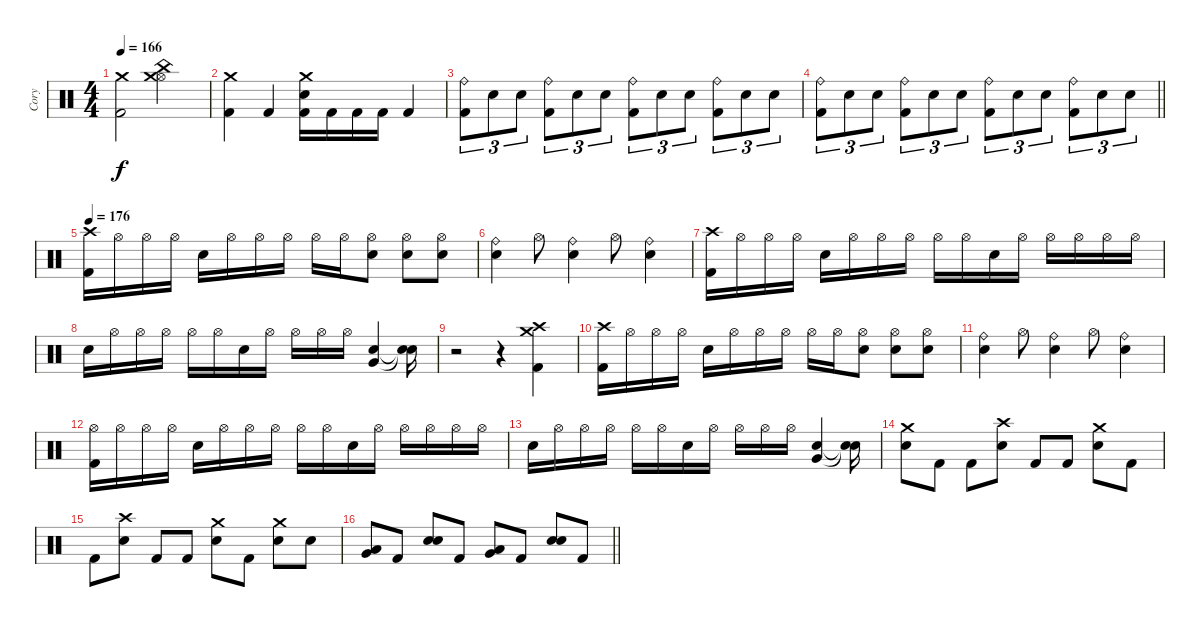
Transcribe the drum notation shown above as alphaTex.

\track ("Cory" "Cory") {instrument percussion}
\staff {score}
\articulation defaults
\ts (4 4)
\tempo 166
\clef neutral
\ks c
("Crash medium (hit)" "Kick (hit) 2").2{dy f} ("Hi-Hat (open)" "Crash medium (hit)" "China (hit)").2 |
("Crash medium (hit)" "Kick (hit) 2").4 "Kick (hit) 2".4 ("Crash medium (hit)" "Snare (hit) 2" "Kick (hit) 2").16 "Kick (hit) 2".16 "Kick (hit) 2".16 "Kick (hit) 2".16 "Kick (hit) 2".4 |
("Ride (bell)" "Kick (hit) 2").8{tu (3 2)} "Snare (hit) 2".8{tu (3 2)} "Snare (hit) 2".8{tu (3 2)} ("Ride (bell)" "Kick (hit) 2").8{tu (3 2)} "Snare (hit) 2".8{tu (3 2)} "Snare (hit) 2".8{tu (3 2)} ("Ride (bell)" "Kick (hit) 2").8{tu (3 2)} "Snare (hit) 2".8{tu (3 2)} "Snare (hit) 2".8{tu (3 2)} ("Ride (bell)" "Kick (hit) 2").8{tu (3 2)} "Snare (hit) 2".8{tu (3 2)} "Snare (hit) 2".8{tu (3 2)} |
\barLineRight lightlight
("Ride (bell)" "Kick (hit) 2").8{tu (3 2)} "Snare (hit) 2".8{tu (3 2)} "Snare (hit) 2".8{tu (3 2)} ("Ride (bell)" "Kick (hit) 2").8{tu (3 2)} "Snare (hit) 2".8{tu (3 2)} "Snare (hit) 2".8{tu (3 2)} ("Ride (bell)" "Kick (hit) 2").8{tu (3 2)} "Snare (hit) 2".8{tu (3 2)} "Snare (hit) 2".8{tu (3 2)} ("Ride (bell)" "Kick (hit) 2").8{tu (3 2)} "Snare (hit) 2".8{tu (3 2)} "Snare (hit) 2".8{tu (3 2)} |
\tempo 176
("Crash high (hit)" "Kick (hit) 2").16 "Hi-Hat (open)".16 "Hi-Hat (open)".16 "Hi-Hat (open)".16 "Snare (hit) 2".16 "Hi-Hat (open)".16 "Hi-Hat (open)".16 "Hi-Hat (open)".16 "Hi-Hat (open)".16 "Hi-Hat (open)".16 ("Hi-Hat (open)" "Snare (hit) 2").8 ("Hi-Hat (open)" "Snare (hit) 2").8 ("Hi-Hat (open)" "Snare (hit) 2").8 |
("Ride (bell)" "Snare (hit) 2").4 "Hi-Hat (open)".8 ("Ride (bell)" "Snare (hit) 2").4 "Hi-Hat (open)".8 ("Ride (bell)" "Snare (hit) 2").4 |
("Crash high (hit)" "Kick (hit) 2").16 "Hi-Hat (open)".16 "Hi-Hat (open)".16 "Hi-Hat (open)".16 "Snare (hit) 2".16 "Hi-Hat (open)".16 "Hi-Hat (open)".16 "Hi-Hat (open)".16 "Hi-Hat (open)".16 "Hi-Hat (open)".16 "Snare (hit) 2".16 "Hi-Hat (open)".16 "Hi-Hat (open)".16 "Hi-Hat (open)".16 "Hi-Hat (open)".16 "Hi-Hat (open)".16 |
"Snare (hit) 2".16 "Hi-Hat (open)".16 "Hi-Hat (open)".16 "Hi-Hat (open)".16 "Hi-Hat (open)".16 "Hi-Hat (open)".16 "Snare (hit) 2".16 "Hi-Hat (open)".16 "Hi-Hat (open)".16 "Hi-Hat (open)".16 "Hi-Hat (open)".16 ("Very Low Tom (hit)" "Snare (hit) 2").4 ("Snare (hit)"{t} "Snare (hit)"{t}).16 |
r.2 r.4 ("Crash high (hit)" "Crash medium (hit)" "Kick (hit) 2").4 |
("Crash high (hit)" "Kick (hit) 2").16 "Hi-Hat (open)".16 "Hi-Hat (open)".16 "Hi-Hat (open)".16 "Snare (hit) 2".16 "Hi-Hat (open)".16 "Hi-Hat (open)".16 "Hi-Hat (open)".16 "Hi-Hat (open)".16 "Hi-Hat (open)".16 ("Hi-Hat (open)" "Snare (hit) 2").8 ("Hi-Hat (open)" "Snare (hit) 2").8 ("Hi-Hat (open)" "Snare (hit) 2").8 |
("Ride (bell)" "Snare (hit) 2").4 "Hi-Hat (open)".8 ("Ride (bell)" "Snare (hit) 2").4 "Hi-Hat (open)".8 ("Ride (bell)" "Snare (hit) 2").4 |
("Hi-Hat (open)" "Kick (hit) 2").16 "Hi-Hat (open)".16 "Hi-Hat (open)".16 "Hi-Hat (open)".16 "Snare (hit) 2".16 "Hi-Hat (open)".16 "Hi-Hat (open)".16 "Hi-Hat (open)".16 "Hi-Hat (open)".16 "Hi-Hat (open)".16 "Snare (hit) 2".16 "Hi-Hat (open)".16 "Hi-Hat (open)".16 "Hi-Hat (open)".16 "Hi-Hat (open)".16 "Hi-Hat (open)".16 |
"Snare (hit) 2".16 "Hi-Hat (open)".16 "Hi-Hat (open)".16 "Hi-Hat (open)".16 "Hi-Hat (open)".16 "Hi-Hat (open)".16 "Snare (hit) 2".16 "Hi-Hat (open)".16 "Hi-Hat (open)".16 "Hi-Hat (open)".16 "Hi-Hat (open)".16 ("Very Low Tom (hit)" "Snare (hit) 2").4 ("Snare (hit)"{t} "Snare (hit)"{t}).16 |
("Crash medium (hit)" "Snare (hit) 2").8 "Kick (hit) 2".8 "Kick (hit) 2".8 ("Crash high (hit)" "Snare (hit) 2").8 "Kick (hit) 2".8 "Kick (hit) 2".8 ("Crash medium (hit)" "Snare (hit) 2").8 "Kick (hit) 2".8 |
"Kick (hit) 2".8 ("Crash high (hit)" "Snare (hit) 2").8 "Kick (hit) 2".8 "Kick (hit) 2".8 ("Crash medium (hit)" "Snare (hit) 2").8 "Kick (hit) 2".8 ("Crash medium (hit)" "Snare (hit) 2").8 "Snare (hit) 2".8 |
\barLineRight lightlight
("Low Tom (hit)" "Very Low Tom (hit)").8 "Kick (hit) 2".8 ("Snare (hit) 2" "Snare (hit) 2").8 "Kick (hit) 2".8 ("Low Tom (hit)" "Very Low Tom (hit)").8 "Kick (hit) 2".8 ("Snare (hit) 2" "Snare (hit) 2").8 "Kick (hit) 2".8
